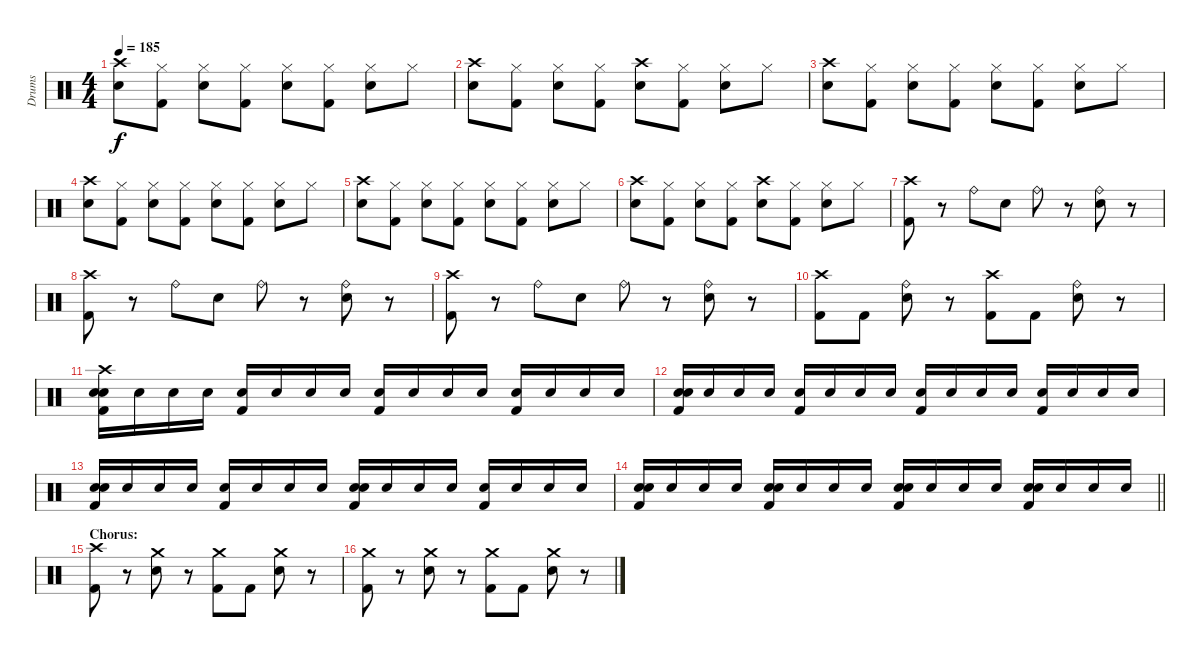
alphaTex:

\track ("Drums" "Drums") {instrument percussion}
\staff {score}
\articulation defaults
\ts (4 4)
\tempo 185
\clef neutral
\ks c
("Crash high (hit)" "Snare (hit) 2").8{dy f} ("Hi-Hat (closed)" "Kick (hit) 2").8 ("Hi-Hat (closed)" "Snare (hit) 2").8 ("Hi-Hat (closed)" "Kick (hit) 2").8 ("Hi-Hat (closed)" "Snare (hit) 2").8 ("Hi-Hat (closed)" "Kick (hit) 2").8 ("Hi-Hat (closed)" "Snare (hit) 2").8 "Hi-Hat (closed)".8 |
("Crash high (hit)" "Snare (hit) 2").8 ("Hi-Hat (closed)" "Kick (hit) 2").8 ("Hi-Hat (closed)" "Snare (hit) 2").8 ("Hi-Hat (closed)" "Kick (hit) 2").8 ("Crash high (hit)" "Snare (hit) 2").8 ("Hi-Hat (closed)" "Kick (hit) 2").8 ("Hi-Hat (closed)" "Snare (hit) 2").8 "Hi-Hat (closed)".8 |
("Crash high (hit)" "Snare (hit) 2").8 ("Hi-Hat (closed)" "Kick (hit) 2").8 ("Hi-Hat (closed)" "Snare (hit) 2").8 ("Hi-Hat (closed)" "Kick (hit) 2").8 ("Hi-Hat (closed)" "Snare (hit) 2").8 ("Hi-Hat (closed)" "Kick (hit) 2").8 ("Hi-Hat (closed)" "Snare (hit) 2").8 "Hi-Hat (closed)".8 |
("Crash high (hit)" "Snare (hit) 2").8 ("Hi-Hat (closed)" "Kick (hit) 2").8 ("Hi-Hat (closed)" "Snare (hit) 2").8 ("Hi-Hat (closed)" "Kick (hit) 2").8 ("Hi-Hat (closed)" "Snare (hit) 2").8 ("Hi-Hat (closed)" "Kick (hit) 2").8 ("Hi-Hat (closed)" "Snare (hit) 2").8 "Hi-Hat (closed)".8 |
("Crash high (hit)" "Snare (hit) 2").8 ("Hi-Hat (closed)" "Kick (hit) 2").8 ("Hi-Hat (closed)" "Snare (hit) 2").8 ("Hi-Hat (closed)" "Kick (hit) 2").8 ("Hi-Hat (closed)" "Snare (hit) 2").8 ("Hi-Hat (closed)" "Kick (hit) 2").8 ("Hi-Hat (closed)" "Snare (hit) 2").8 "Hi-Hat (closed)".8 |
("Crash high (hit)" "Snare (hit) 2").8 ("Hi-Hat (closed)" "Kick (hit) 2").8 ("Hi-Hat (closed)" "Snare (hit) 2").8 ("Hi-Hat (closed)" "Kick (hit) 2").8 ("Crash high (hit)" "Snare (hit) 2").8 ("Hi-Hat (closed)" "Kick (hit) 2").8 ("Hi-Hat (closed)" "Snare (hit) 2").8 "Hi-Hat (closed)".8 |
("Crash high (hit)" "Kick (hit) 2").8 r.8 "Ride (bell)".8 "Snare (hit) 2".8 "Ride (bell)".8 r.8 ("Ride (bell)" "Snare (hit) 2").8 r.8 |
("Crash high (hit)" "Kick (hit) 2").8 r.8 "Ride (bell)".8 "Snare (hit) 2".8 "Ride (bell)".8 r.8 ("Ride (bell)" "Snare (hit) 2").8 r.8 |
("Crash high (hit)" "Kick (hit) 2").8 r.8 "Ride (bell)".8 "Snare (hit) 2".8 "Ride (bell)".8 r.8 ("Ride (bell)" "Snare (hit) 2").8 r.8 |
("Crash high (hit)" "Kick (hit) 2").8 "Kick (hit) 2".8 ("Ride (bell)" "Snare (hit) 2").8 r.8 ("Crash high (hit)" "Kick (hit) 2").8 "Kick (hit) 2".8 ("Ride (bell)" "Snare (hit) 2").8 r.8 |
("Crash high (hit)" "Snare (hit) 2" "Snare (hit) 2" "Kick (hit) 2").16 "Snare (hit) 2".16 "Snare (hit) 2".16 "Snare (hit) 2".16 ("Snare (hit) 2" "Kick (hit) 2").16 "Snare (hit) 2".16 "Snare (hit) 2".16 "Snare (hit) 2".16 ("Snare (hit) 2" "Kick (hit) 2").16 "Snare (hit) 2".16 "Snare (hit) 2".16 "Snare (hit) 2".16 ("Snare (hit) 2" "Kick (hit) 2").16 "Snare (hit) 2".16 "Snare (hit) 2".16 "Snare (hit) 2".16 |
("Snare (hit) 2" "Snare (hit) 2" "Kick (hit) 2").16 "Snare (hit) 2".16 "Snare (hit) 2".16 "Snare (hit) 2".16 ("Snare (hit) 2" "Kick (hit) 2").16 "Snare (hit) 2".16 "Snare (hit) 2".16 "Snare (hit) 2".16 ("Snare (hit) 2" "Kick (hit) 2").16 "Snare (hit) 2".16 "Snare (hit) 2".16 "Snare (hit) 2".16 ("Snare (hit) 2" "Kick (hit) 2").16 "Snare (hit) 2".16 "Snare (hit) 2".16 "Snare (hit) 2".16 |
("Snare (hit) 2" "Snare (hit) 2" "Kick (hit) 2").16 "Snare (hit) 2".16 "Snare (hit) 2".16 "Snare (hit) 2".16 ("Snare (hit) 2" "Kick (hit) 2").16 "Snare (hit) 2".16 "Snare (hit) 2".16 "Snare (hit) 2".16 ("Snare (hit) 2" "Snare (hit) 2" "Kick (hit) 2").16 "Snare (hit) 2".16 "Snare (hit) 2".16 "Snare (hit) 2".16 ("Snare (hit) 2" "Kick (hit) 2").16 "Snare (hit) 2".16 "Snare (hit) 2".16 "Snare (hit) 2".16 |
\barLineRight lightlight
("Snare (hit) 2" "Snare (hit) 2" "Kick (hit) 2").16 "Snare (hit) 2".16 "Snare (hit) 2".16 "Snare (hit) 2".16 ("Snare (hit) 2" "Snare (hit) 2" "Kick (hit) 2").16 "Snare (hit) 2".16 "Snare (hit) 2".16 "Snare (hit) 2".16 ("Snare (hit) 2" "Snare (hit) 2" "Kick (hit) 2").16 "Snare (hit) 2".16 "Snare (hit) 2".16 "Snare (hit) 2".16 ("Snare (hit) 2" "Snare (hit) 2" "Kick (hit) 2").16 "Snare (hit) 2".16 "Snare (hit) 2".16 "Snare (hit) 2".16 |
\section ("" "Chorus:")
("Crash high (hit)" "Kick (hit) 2").8 r.8 ("Crash medium (hit)" "Snare (hit) 2").8 r.8 ("Crash medium (hit)" "Kick (hit) 2").8 "Kick (hit) 2".8 ("Crash medium (hit)" "Snare (hit) 2").8 r.8 |
("Crash medium (hit)" "Kick (hit) 2").8 r.8 ("Crash medium (hit)" "Snare (hit) 2").8 r.8 ("Crash medium (hit)" "Kick (hit) 2").8 "Kick (hit) 2".8 ("Crash medium (hit)" "Snare (hit) 2").8 r.8
